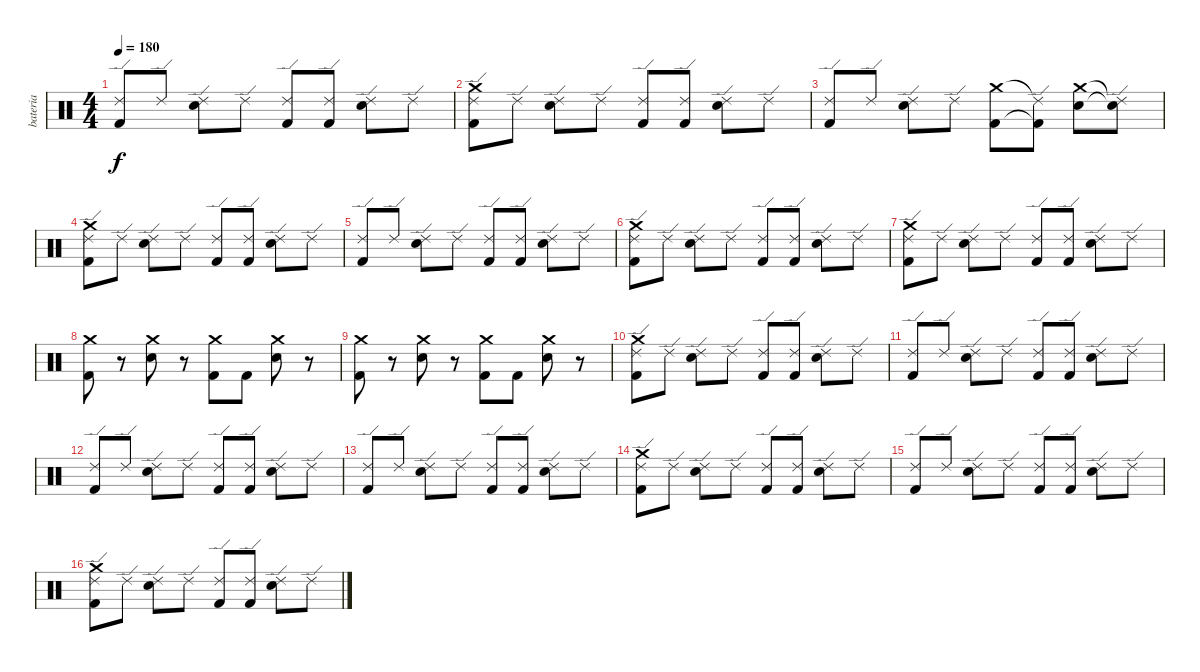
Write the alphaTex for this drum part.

\track ("bateria" "bateria") {instrument percussion}
\staff {score}
\articulation defaults
\ts (4 4)
\tempo 180
\clef neutral
\ks c
("Ride (edge) 2" "Kick (hit) 2").8{dy f} "Ride (edge) 2".8 ("Ride (edge) 2" "Electric Snare (hit)").8 "Ride (edge) 2".8 ("Ride (edge) 2" "Kick (hit) 2").8 ("Ride (edge) 2" "Kick (hit) 2").8 ("Ride (edge) 2" "Electric Snare (hit)").8 "Ride (edge) 2".8 |
("Ride (edge) 2" "Kick (hit) 2" "Crash medium (hit)").8 "Ride (edge) 2".8 ("Ride (edge) 2" "Electric Snare (hit)").8 "Ride (edge) 2".8 ("Ride (edge) 2" "Kick (hit) 2").8 ("Ride (edge) 2" "Kick (hit) 2").8 ("Ride (edge) 2" "Electric Snare (hit)").8 "Ride (edge) 2".8 |
("Ride (edge) 2" "Kick (hit) 2").8 "Ride (edge) 2".8 ("Ride (edge) 2" "Electric Snare (hit)").8 "Ride (edge) 2".8 ("Crash medium (hit)" "Kick (hit) 2").8 ("Ride (edge) 2"{t} "Kick (hit) 2"{t}).8 ("Crash medium (hit)" "Electric Snare (hit)").8 ("Ride (edge) 2"{t} "Snare (hit)"{t}).8 |
("Ride (edge) 2" "Kick (hit) 2" "Crash medium (hit)").8 "Ride (edge) 2".8 ("Ride (edge) 2" "Electric Snare (hit)").8 "Ride (edge) 2".8 ("Ride (edge) 2" "Kick (hit) 2").8 ("Ride (edge) 2" "Kick (hit) 2").8 ("Ride (edge) 2" "Electric Snare (hit)").8 "Ride (edge) 2".8 |
("Ride (edge) 2" "Kick (hit) 2").8 "Ride (edge) 2".8 ("Ride (edge) 2" "Electric Snare (hit)").8 "Ride (edge) 2".8 ("Ride (edge) 2" "Kick (hit) 2").8 ("Ride (edge) 2" "Kick (hit) 2").8 ("Ride (edge) 2" "Electric Snare (hit)").8 "Ride (edge) 2".8 |
("Ride (edge) 2" "Kick (hit) 2" "Crash medium (hit)").8 "Ride (edge) 2".8 ("Ride (edge) 2" "Electric Snare (hit)").8 "Ride (edge) 2".8 ("Ride (edge) 2" "Kick (hit) 2").8 ("Ride (edge) 2" "Kick (hit) 2").8 ("Ride (edge) 2" "Electric Snare (hit)").8 "Ride (edge) 2".8 |
("Ride (edge) 2" "Kick (hit) 2" "Crash medium (hit)").8 "Ride (edge) 2".8 ("Ride (edge) 2" "Electric Snare (hit)").8 "Ride (edge) 2".8 ("Ride (edge) 2" "Kick (hit) 2").8 ("Ride (edge) 2" "Kick (hit) 2").8 ("Ride (edge) 2" "Electric Snare (hit)").8 "Ride (edge) 2".8 |
("Crash medium (hit)" "Kick (hit) 2").8 r.8 ("Crash medium (hit)" "Electric Snare (hit)").8 r.8 ("Crash medium (hit)" "Kick (hit) 2").8 "Kick (hit) 2".8 ("Crash medium (hit)" "Electric Snare (hit)").8 r.8 |
("Crash medium (hit)" "Kick (hit) 2").8 r.8 ("Crash medium (hit)" "Electric Snare (hit)").8 r.8 ("Crash medium (hit)" "Kick (hit) 2").8 "Kick (hit) 2".8 ("Crash medium (hit)" "Electric Snare (hit)").8 r.8 |
("Ride (edge) 2" "Kick (hit) 2" "Crash medium (hit)").8 "Ride (edge) 2".8 ("Ride (edge) 2" "Electric Snare (hit)").8 "Ride (edge) 2".8 ("Ride (edge) 2" "Kick (hit) 2").8 ("Ride (edge) 2" "Kick (hit) 2").8 ("Ride (edge) 2" "Electric Snare (hit)").8 "Ride (edge) 2".8 |
("Ride (edge) 2" "Kick (hit) 2").8 "Ride (edge) 2".8 ("Ride (edge) 2" "Electric Snare (hit)").8 "Ride (edge) 2".8 ("Ride (edge) 2" "Kick (hit) 2").8 ("Ride (edge) 2" "Kick (hit) 2").8 ("Ride (edge) 2" "Electric Snare (hit)").8 "Ride (edge) 2".8 |
("Ride (edge) 2" "Kick (hit) 2").8 "Ride (edge) 2".8 ("Ride (edge) 2" "Electric Snare (hit)").8 "Ride (edge) 2".8 ("Ride (edge) 2" "Kick (hit) 2").8 ("Ride (edge) 2" "Kick (hit) 2").8 ("Ride (edge) 2" "Electric Snare (hit)").8 "Ride (edge) 2".8 |
("Ride (edge) 2" "Kick (hit) 2").8 "Ride (edge) 2".8 ("Ride (edge) 2" "Electric Snare (hit)").8 "Ride (edge) 2".8 ("Ride (edge) 2" "Kick (hit) 2").8 ("Ride (edge) 2" "Kick (hit) 2").8 ("Ride (edge) 2" "Electric Snare (hit)").8 "Ride (edge) 2".8 |
("Ride (edge) 2" "Kick (hit) 2" "Crash medium (hit)").8 "Ride (edge) 2".8 ("Ride (edge) 2" "Electric Snare (hit)").8 "Ride (edge) 2".8 ("Ride (edge) 2" "Kick (hit) 2").8 ("Ride (edge) 2" "Kick (hit) 2").8 ("Ride (edge) 2" "Electric Snare (hit)").8 "Ride (edge) 2".8 |
("Ride (edge) 2" "Kick (hit) 2").8 "Ride (edge) 2".8 ("Ride (edge) 2" "Electric Snare (hit)").8 "Ride (edge) 2".8 ("Ride (edge) 2" "Kick (hit) 2").8 ("Ride (edge) 2" "Kick (hit) 2").8 ("Ride (edge) 2" "Electric Snare (hit)").8 "Ride (edge) 2".8 |
("Ride (edge) 2" "Kick (hit) 2" "Crash medium (hit)").8 "Ride (edge) 2".8 ("Ride (edge) 2" "Electric Snare (hit)").8 "Ride (edge) 2".8 ("Ride (edge) 2" "Kick (hit) 2").8 ("Ride (edge) 2" "Kick (hit) 2").8 ("Ride (edge) 2" "Electric Snare (hit)").8 "Ride (edge) 2".8
